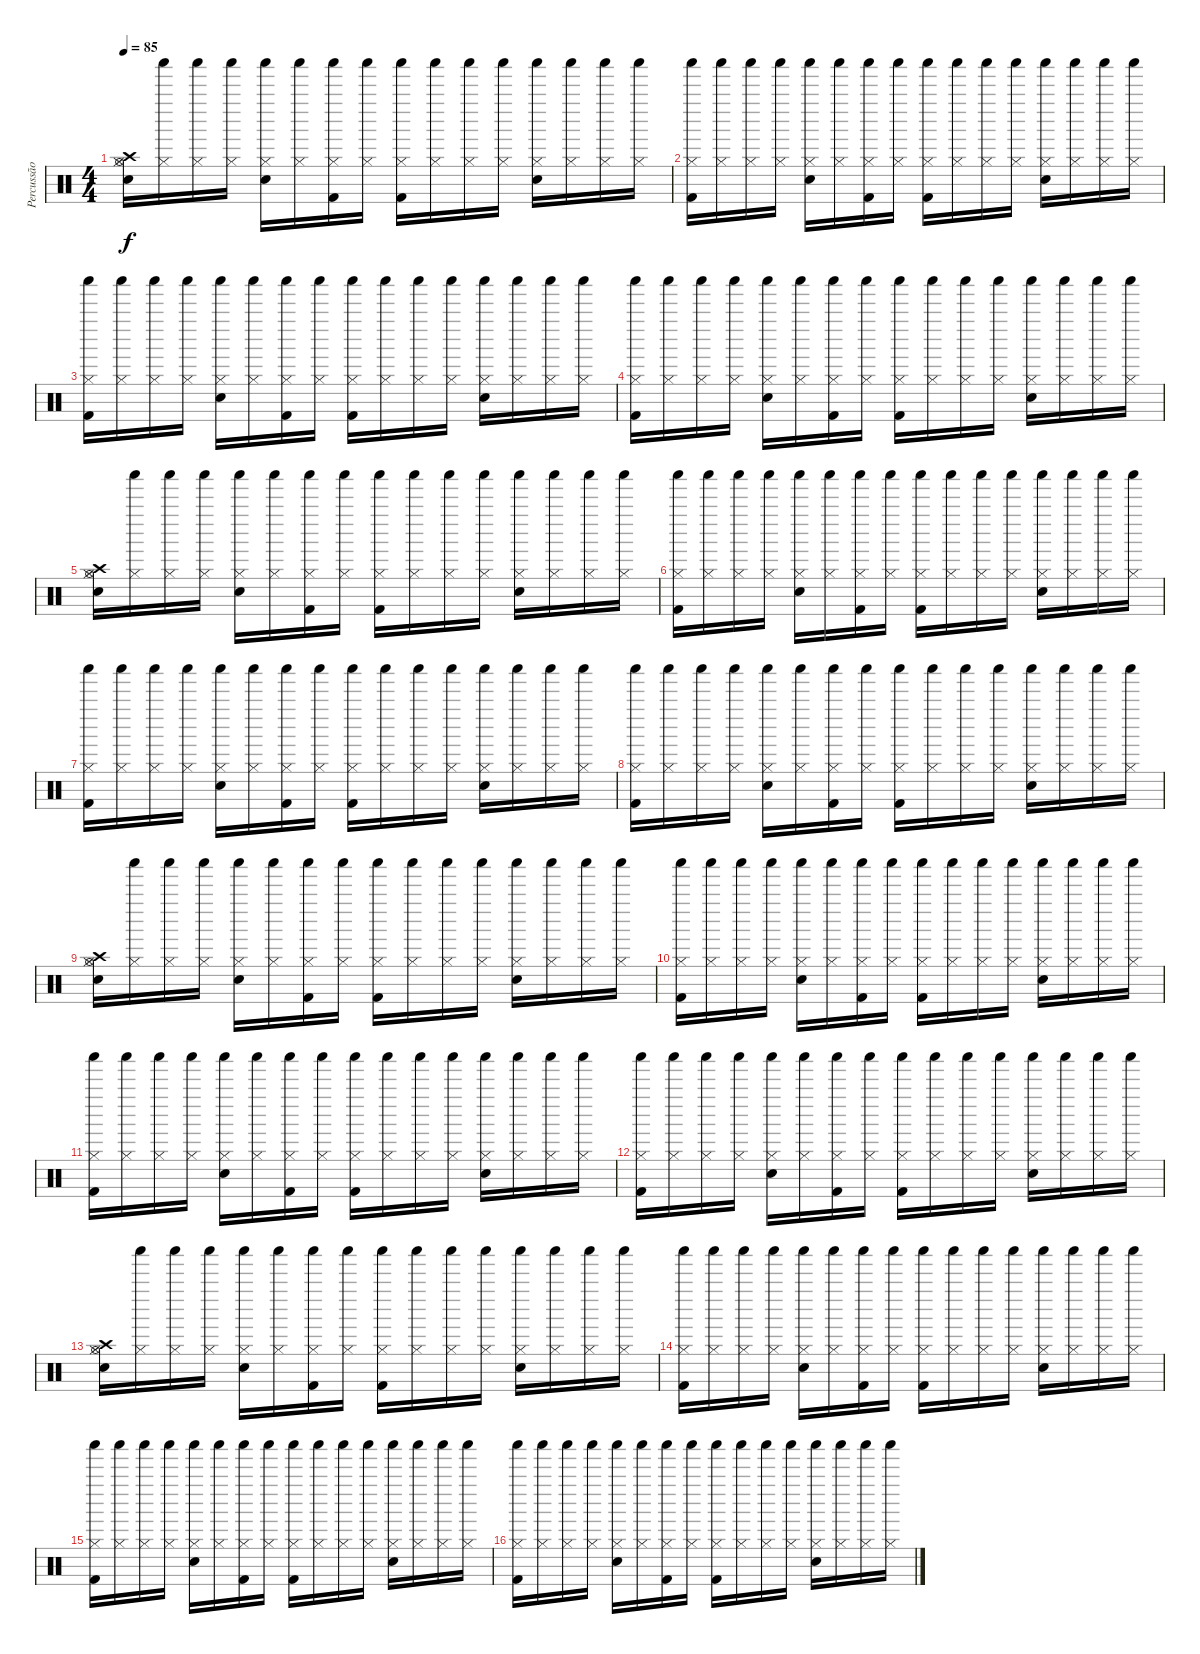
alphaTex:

\track ("Percussão" "Percussão") {instrument percussion}
\staff {score}
\articulation defaults
\ts (4 4)
\tempo 85
\clef neutral
\ks c
("Hi-Hat (open)" "Crash high (hit)" "Hi-Hat (closed)" "Snare (hit) 2").16{dy f} ("Shaker (hit)" "Hi-Hat (closed)").16 ("Shaker (hit)" "Hi-Hat (closed)").16 ("Shaker (hit)" "Hi-Hat (closed)").16 ("Shaker (hit)" "Hi-Hat (closed)" "Snare (hit) 2").16 ("Shaker (hit)" "Hi-Hat (closed)").16 ("Shaker (hit)" "Hi-Hat (closed)" "Kick (hit) 2").16 ("Shaker (hit)" "Hi-Hat (closed)").16 ("Shaker (hit)" "Hi-Hat (closed)" "Kick (hit) 2").16 ("Shaker (hit)" "Hi-Hat (closed)").16 ("Shaker (hit)" "Hi-Hat (closed)").16 ("Shaker (hit)" "Hi-Hat (closed)").16 ("Shaker (hit)" "Hi-Hat (closed)" "Snare (hit) 2").16 ("Shaker (hit)" "Hi-Hat (closed)").16 ("Shaker (hit)" "Hi-Hat (closed)").16 ("Shaker (hit)" "Hi-Hat (closed)").16 |
("Shaker (hit)" "Hi-Hat (closed)" "Kick (hit) 2").16 ("Shaker (hit)" "Hi-Hat (closed)").16 ("Shaker (hit)" "Hi-Hat (closed)").16 ("Shaker (hit)" "Hi-Hat (closed)").16 ("Shaker (hit)" "Hi-Hat (closed)" "Snare (hit) 2").16 ("Shaker (hit)" "Hi-Hat (closed)").16 ("Shaker (hit)" "Hi-Hat (closed)" "Kick (hit) 2").16 ("Shaker (hit)" "Hi-Hat (closed)").16 ("Shaker (hit)" "Hi-Hat (closed)" "Kick (hit) 2").16 ("Shaker (hit)" "Hi-Hat (closed)").16 ("Shaker (hit)" "Hi-Hat (closed)").16 ("Shaker (hit)" "Hi-Hat (closed)").16 ("Shaker (hit)" "Hi-Hat (closed)" "Snare (hit) 2").16 ("Shaker (hit)" "Hi-Hat (closed)").16 ("Shaker (hit)" "Hi-Hat (closed)").16 ("Shaker (hit)" "Hi-Hat (closed)").16 |
("Shaker (hit)" "Hi-Hat (closed)" "Kick (hit) 2").16 ("Shaker (hit)" "Hi-Hat (closed)").16 ("Shaker (hit)" "Hi-Hat (closed)").16 ("Shaker (hit)" "Hi-Hat (closed)").16 ("Shaker (hit)" "Hi-Hat (closed)" "Snare (hit) 2").16 ("Shaker (hit)" "Hi-Hat (closed)").16 ("Shaker (hit)" "Hi-Hat (closed)" "Kick (hit) 2").16 ("Shaker (hit)" "Hi-Hat (closed)").16 ("Shaker (hit)" "Hi-Hat (closed)" "Kick (hit) 2").16 ("Shaker (hit)" "Hi-Hat (closed)").16 ("Shaker (hit)" "Hi-Hat (closed)").16 ("Shaker (hit)" "Hi-Hat (closed)").16 ("Shaker (hit)" "Hi-Hat (closed)" "Snare (hit) 2").16 ("Shaker (hit)" "Hi-Hat (closed)").16 ("Shaker (hit)" "Hi-Hat (closed)").16 ("Shaker (hit)" "Hi-Hat (closed)").16 |
("Shaker (hit)" "Hi-Hat (closed)" "Kick (hit) 2").16 ("Shaker (hit)" "Hi-Hat (closed)").16 ("Shaker (hit)" "Hi-Hat (closed)").16 ("Shaker (hit)" "Hi-Hat (closed)").16 ("Shaker (hit)" "Hi-Hat (closed)" "Snare (hit) 2").16 ("Shaker (hit)" "Hi-Hat (closed)").16 ("Shaker (hit)" "Hi-Hat (closed)" "Kick (hit) 2").16 ("Shaker (hit)" "Hi-Hat (closed)").16 ("Shaker (hit)" "Hi-Hat (closed)" "Kick (hit) 2").16 ("Shaker (hit)" "Hi-Hat (closed)").16 ("Shaker (hit)" "Hi-Hat (closed)").16 ("Shaker (hit)" "Hi-Hat (closed)").16 ("Shaker (hit)" "Hi-Hat (closed)" "Snare (hit) 2").16 ("Shaker (hit)" "Hi-Hat (closed)").16 ("Shaker (hit)" "Hi-Hat (closed)").16 ("Shaker (hit)" "Hi-Hat (closed)").16 |
("Hi-Hat (open)" "Crash high (hit)" "Hi-Hat (closed)" "Snare (hit) 2").16 ("Shaker (hit)" "Hi-Hat (closed)").16 ("Shaker (hit)" "Hi-Hat (closed)").16 ("Shaker (hit)" "Hi-Hat (closed)").16 ("Shaker (hit)" "Hi-Hat (closed)" "Snare (hit) 2").16 ("Shaker (hit)" "Hi-Hat (closed)").16 ("Shaker (hit)" "Hi-Hat (closed)" "Kick (hit) 2").16 ("Shaker (hit)" "Hi-Hat (closed)").16 ("Shaker (hit)" "Hi-Hat (closed)" "Kick (hit) 2").16 ("Shaker (hit)" "Hi-Hat (closed)").16 ("Shaker (hit)" "Hi-Hat (closed)").16 ("Shaker (hit)" "Hi-Hat (closed)").16 ("Shaker (hit)" "Hi-Hat (closed)" "Snare (hit) 2").16 ("Shaker (hit)" "Hi-Hat (closed)").16 ("Shaker (hit)" "Hi-Hat (closed)").16 ("Shaker (hit)" "Hi-Hat (closed)").16 |
("Shaker (hit)" "Hi-Hat (closed)" "Kick (hit) 2").16 ("Shaker (hit)" "Hi-Hat (closed)").16 ("Shaker (hit)" "Hi-Hat (closed)").16 ("Shaker (hit)" "Hi-Hat (closed)").16 ("Shaker (hit)" "Hi-Hat (closed)" "Snare (hit) 2").16 ("Shaker (hit)" "Hi-Hat (closed)").16 ("Shaker (hit)" "Hi-Hat (closed)" "Kick (hit) 2").16 ("Shaker (hit)" "Hi-Hat (closed)").16 ("Shaker (hit)" "Hi-Hat (closed)" "Kick (hit) 2").16 ("Shaker (hit)" "Hi-Hat (closed)").16 ("Shaker (hit)" "Hi-Hat (closed)").16 ("Shaker (hit)" "Hi-Hat (closed)").16 ("Shaker (hit)" "Hi-Hat (closed)" "Snare (hit) 2").16 ("Shaker (hit)" "Hi-Hat (closed)").16 ("Shaker (hit)" "Hi-Hat (closed)").16 ("Shaker (hit)" "Hi-Hat (closed)").16 |
("Shaker (hit)" "Hi-Hat (closed)" "Kick (hit) 2").16 ("Shaker (hit)" "Hi-Hat (closed)").16 ("Shaker (hit)" "Hi-Hat (closed)").16 ("Shaker (hit)" "Hi-Hat (closed)").16 ("Shaker (hit)" "Hi-Hat (closed)" "Snare (hit) 2").16 ("Shaker (hit)" "Hi-Hat (closed)").16 ("Shaker (hit)" "Hi-Hat (closed)" "Kick (hit) 2").16 ("Shaker (hit)" "Hi-Hat (closed)").16 ("Shaker (hit)" "Hi-Hat (closed)" "Kick (hit) 2").16 ("Shaker (hit)" "Hi-Hat (closed)").16 ("Shaker (hit)" "Hi-Hat (closed)").16 ("Shaker (hit)" "Hi-Hat (closed)").16 ("Shaker (hit)" "Hi-Hat (closed)" "Snare (hit) 2").16 ("Shaker (hit)" "Hi-Hat (closed)").16 ("Shaker (hit)" "Hi-Hat (closed)").16 ("Shaker (hit)" "Hi-Hat (closed)").16 |
("Shaker (hit)" "Hi-Hat (closed)" "Kick (hit) 2").16 ("Shaker (hit)" "Hi-Hat (closed)").16 ("Shaker (hit)" "Hi-Hat (closed)").16 ("Shaker (hit)" "Hi-Hat (closed)").16 ("Shaker (hit)" "Hi-Hat (closed)" "Snare (hit) 2").16 ("Shaker (hit)" "Hi-Hat (closed)").16 ("Shaker (hit)" "Hi-Hat (closed)" "Kick (hit) 2").16 ("Shaker (hit)" "Hi-Hat (closed)").16 ("Shaker (hit)" "Hi-Hat (closed)" "Kick (hit) 2").16 ("Shaker (hit)" "Hi-Hat (closed)").16 ("Shaker (hit)" "Hi-Hat (closed)").16 ("Shaker (hit)" "Hi-Hat (closed)").16 ("Shaker (hit)" "Hi-Hat (closed)" "Snare (hit) 2").16 ("Shaker (hit)" "Hi-Hat (closed)").16 ("Shaker (hit)" "Hi-Hat (closed)").16 ("Shaker (hit)" "Hi-Hat (closed)").16 |
("Hi-Hat (open)" "Crash high (hit)" "Hi-Hat (closed)" "Snare (hit) 2").16 ("Shaker (hit)" "Hi-Hat (closed)").16 ("Shaker (hit)" "Hi-Hat (closed)").16 ("Shaker (hit)" "Hi-Hat (closed)").16 ("Shaker (hit)" "Hi-Hat (closed)" "Snare (hit) 2").16 ("Shaker (hit)" "Hi-Hat (closed)").16 ("Shaker (hit)" "Hi-Hat (closed)" "Kick (hit) 2").16 ("Shaker (hit)" "Hi-Hat (closed)").16 ("Shaker (hit)" "Hi-Hat (closed)" "Kick (hit) 2").16 ("Shaker (hit)" "Hi-Hat (closed)").16 ("Shaker (hit)" "Hi-Hat (closed)").16 ("Shaker (hit)" "Hi-Hat (closed)").16 ("Shaker (hit)" "Hi-Hat (closed)" "Snare (hit) 2").16 ("Shaker (hit)" "Hi-Hat (closed)").16 ("Shaker (hit)" "Hi-Hat (closed)").16 ("Shaker (hit)" "Hi-Hat (closed)").16 |
("Shaker (hit)" "Hi-Hat (closed)" "Kick (hit) 2").16 ("Shaker (hit)" "Hi-Hat (closed)").16 ("Shaker (hit)" "Hi-Hat (closed)").16 ("Shaker (hit)" "Hi-Hat (closed)").16 ("Shaker (hit)" "Hi-Hat (closed)" "Snare (hit) 2").16 ("Shaker (hit)" "Hi-Hat (closed)").16 ("Shaker (hit)" "Hi-Hat (closed)" "Kick (hit) 2").16 ("Shaker (hit)" "Hi-Hat (closed)").16 ("Shaker (hit)" "Hi-Hat (closed)" "Kick (hit) 2").16 ("Shaker (hit)" "Hi-Hat (closed)").16 ("Shaker (hit)" "Hi-Hat (closed)").16 ("Shaker (hit)" "Hi-Hat (closed)").16 ("Shaker (hit)" "Hi-Hat (closed)" "Snare (hit) 2").16 ("Shaker (hit)" "Hi-Hat (closed)").16 ("Shaker (hit)" "Hi-Hat (closed)").16 ("Shaker (hit)" "Hi-Hat (closed)").16 |
("Shaker (hit)" "Hi-Hat (closed)" "Kick (hit) 2").16 ("Shaker (hit)" "Hi-Hat (closed)").16 ("Shaker (hit)" "Hi-Hat (closed)").16 ("Shaker (hit)" "Hi-Hat (closed)").16 ("Shaker (hit)" "Hi-Hat (closed)" "Snare (hit) 2").16 ("Shaker (hit)" "Hi-Hat (closed)").16 ("Shaker (hit)" "Hi-Hat (closed)" "Kick (hit) 2").16 ("Shaker (hit)" "Hi-Hat (closed)").16 ("Shaker (hit)" "Hi-Hat (closed)" "Kick (hit) 2").16 ("Shaker (hit)" "Hi-Hat (closed)").16 ("Shaker (hit)" "Hi-Hat (closed)").16 ("Shaker (hit)" "Hi-Hat (closed)").16 ("Shaker (hit)" "Hi-Hat (closed)" "Snare (hit) 2").16 ("Shaker (hit)" "Hi-Hat (closed)").16 ("Shaker (hit)" "Hi-Hat (closed)").16 ("Shaker (hit)" "Hi-Hat (closed)").16 |
("Shaker (hit)" "Hi-Hat (closed)" "Kick (hit) 2").16 ("Shaker (hit)" "Hi-Hat (closed)").16 ("Shaker (hit)" "Hi-Hat (closed)").16 ("Shaker (hit)" "Hi-Hat (closed)").16 ("Shaker (hit)" "Hi-Hat (closed)" "Snare (hit) 2").16 ("Shaker (hit)" "Hi-Hat (closed)").16 ("Shaker (hit)" "Hi-Hat (closed)" "Kick (hit) 2").16 ("Shaker (hit)" "Hi-Hat (closed)").16 ("Shaker (hit)" "Hi-Hat (closed)" "Kick (hit) 2").16 ("Shaker (hit)" "Hi-Hat (closed)").16 ("Shaker (hit)" "Hi-Hat (closed)").16 ("Shaker (hit)" "Hi-Hat (closed)").16 ("Shaker (hit)" "Hi-Hat (closed)" "Snare (hit) 2").16 ("Shaker (hit)" "Hi-Hat (closed)").16 ("Shaker (hit)" "Hi-Hat (closed)").16 ("Shaker (hit)" "Hi-Hat (closed)").16 |
("Hi-Hat (open)" "Crash high (hit)" "Hi-Hat (closed)" "Snare (hit) 2").16 ("Shaker (hit)" "Hi-Hat (closed)").16 ("Shaker (hit)" "Hi-Hat (closed)").16 ("Shaker (hit)" "Hi-Hat (closed)").16 ("Shaker (hit)" "Hi-Hat (closed)" "Snare (hit) 2").16 ("Shaker (hit)" "Hi-Hat (closed)").16 ("Shaker (hit)" "Hi-Hat (closed)" "Kick (hit) 2").16 ("Shaker (hit)" "Hi-Hat (closed)").16 ("Shaker (hit)" "Hi-Hat (closed)" "Kick (hit) 2").16 ("Shaker (hit)" "Hi-Hat (closed)").16 ("Shaker (hit)" "Hi-Hat (closed)").16 ("Shaker (hit)" "Hi-Hat (closed)").16 ("Shaker (hit)" "Hi-Hat (closed)" "Snare (hit) 2").16 ("Shaker (hit)" "Hi-Hat (closed)").16 ("Shaker (hit)" "Hi-Hat (closed)").16 ("Shaker (hit)" "Hi-Hat (closed)").16 |
("Shaker (hit)" "Hi-Hat (closed)" "Kick (hit) 2").16 ("Shaker (hit)" "Hi-Hat (closed)").16 ("Shaker (hit)" "Hi-Hat (closed)").16 ("Shaker (hit)" "Hi-Hat (closed)").16 ("Shaker (hit)" "Hi-Hat (closed)" "Snare (hit) 2").16 ("Shaker (hit)" "Hi-Hat (closed)").16 ("Shaker (hit)" "Hi-Hat (closed)" "Kick (hit) 2").16 ("Shaker (hit)" "Hi-Hat (closed)").16 ("Shaker (hit)" "Hi-Hat (closed)" "Kick (hit) 2").16 ("Shaker (hit)" "Hi-Hat (closed)").16 ("Shaker (hit)" "Hi-Hat (closed)").16 ("Shaker (hit)" "Hi-Hat (closed)").16 ("Shaker (hit)" "Hi-Hat (closed)" "Snare (hit) 2").16 ("Shaker (hit)" "Hi-Hat (closed)").16 ("Shaker (hit)" "Hi-Hat (closed)").16 ("Shaker (hit)" "Hi-Hat (closed)").16 |
("Shaker (hit)" "Hi-Hat (closed)" "Kick (hit) 2").16 ("Shaker (hit)" "Hi-Hat (closed)").16 ("Shaker (hit)" "Hi-Hat (closed)").16 ("Shaker (hit)" "Hi-Hat (closed)").16 ("Shaker (hit)" "Hi-Hat (closed)" "Snare (hit) 2").16 ("Shaker (hit)" "Hi-Hat (closed)").16 ("Shaker (hit)" "Hi-Hat (closed)" "Kick (hit) 2").16 ("Shaker (hit)" "Hi-Hat (closed)").16 ("Shaker (hit)" "Hi-Hat (closed)" "Kick (hit) 2").16 ("Shaker (hit)" "Hi-Hat (closed)").16 ("Shaker (hit)" "Hi-Hat (closed)").16 ("Shaker (hit)" "Hi-Hat (closed)").16 ("Shaker (hit)" "Hi-Hat (closed)" "Snare (hit) 2").16 ("Shaker (hit)" "Hi-Hat (closed)").16 ("Shaker (hit)" "Hi-Hat (closed)").16 ("Shaker (hit)" "Hi-Hat (closed)").16 |
("Shaker (hit)" "Hi-Hat (closed)" "Kick (hit) 2").16 ("Shaker (hit)" "Hi-Hat (closed)").16 ("Shaker (hit)" "Hi-Hat (closed)").16 ("Shaker (hit)" "Hi-Hat (closed)").16 ("Shaker (hit)" "Hi-Hat (closed)" "Snare (hit) 2").16 ("Shaker (hit)" "Hi-Hat (closed)").16 ("Shaker (hit)" "Hi-Hat (closed)" "Kick (hit) 2").16 ("Shaker (hit)" "Hi-Hat (closed)").16 ("Shaker (hit)" "Hi-Hat (closed)" "Kick (hit) 2").16 ("Shaker (hit)" "Hi-Hat (closed)").16 ("Shaker (hit)" "Hi-Hat (closed)").16 ("Shaker (hit)" "Hi-Hat (closed)").16 ("Shaker (hit)" "Hi-Hat (closed)" "Snare (hit) 2").16 ("Shaker (hit)" "Hi-Hat (closed)").16 ("Shaker (hit)" "Hi-Hat (closed)").16 ("Shaker (hit)" "Hi-Hat (closed)").16
